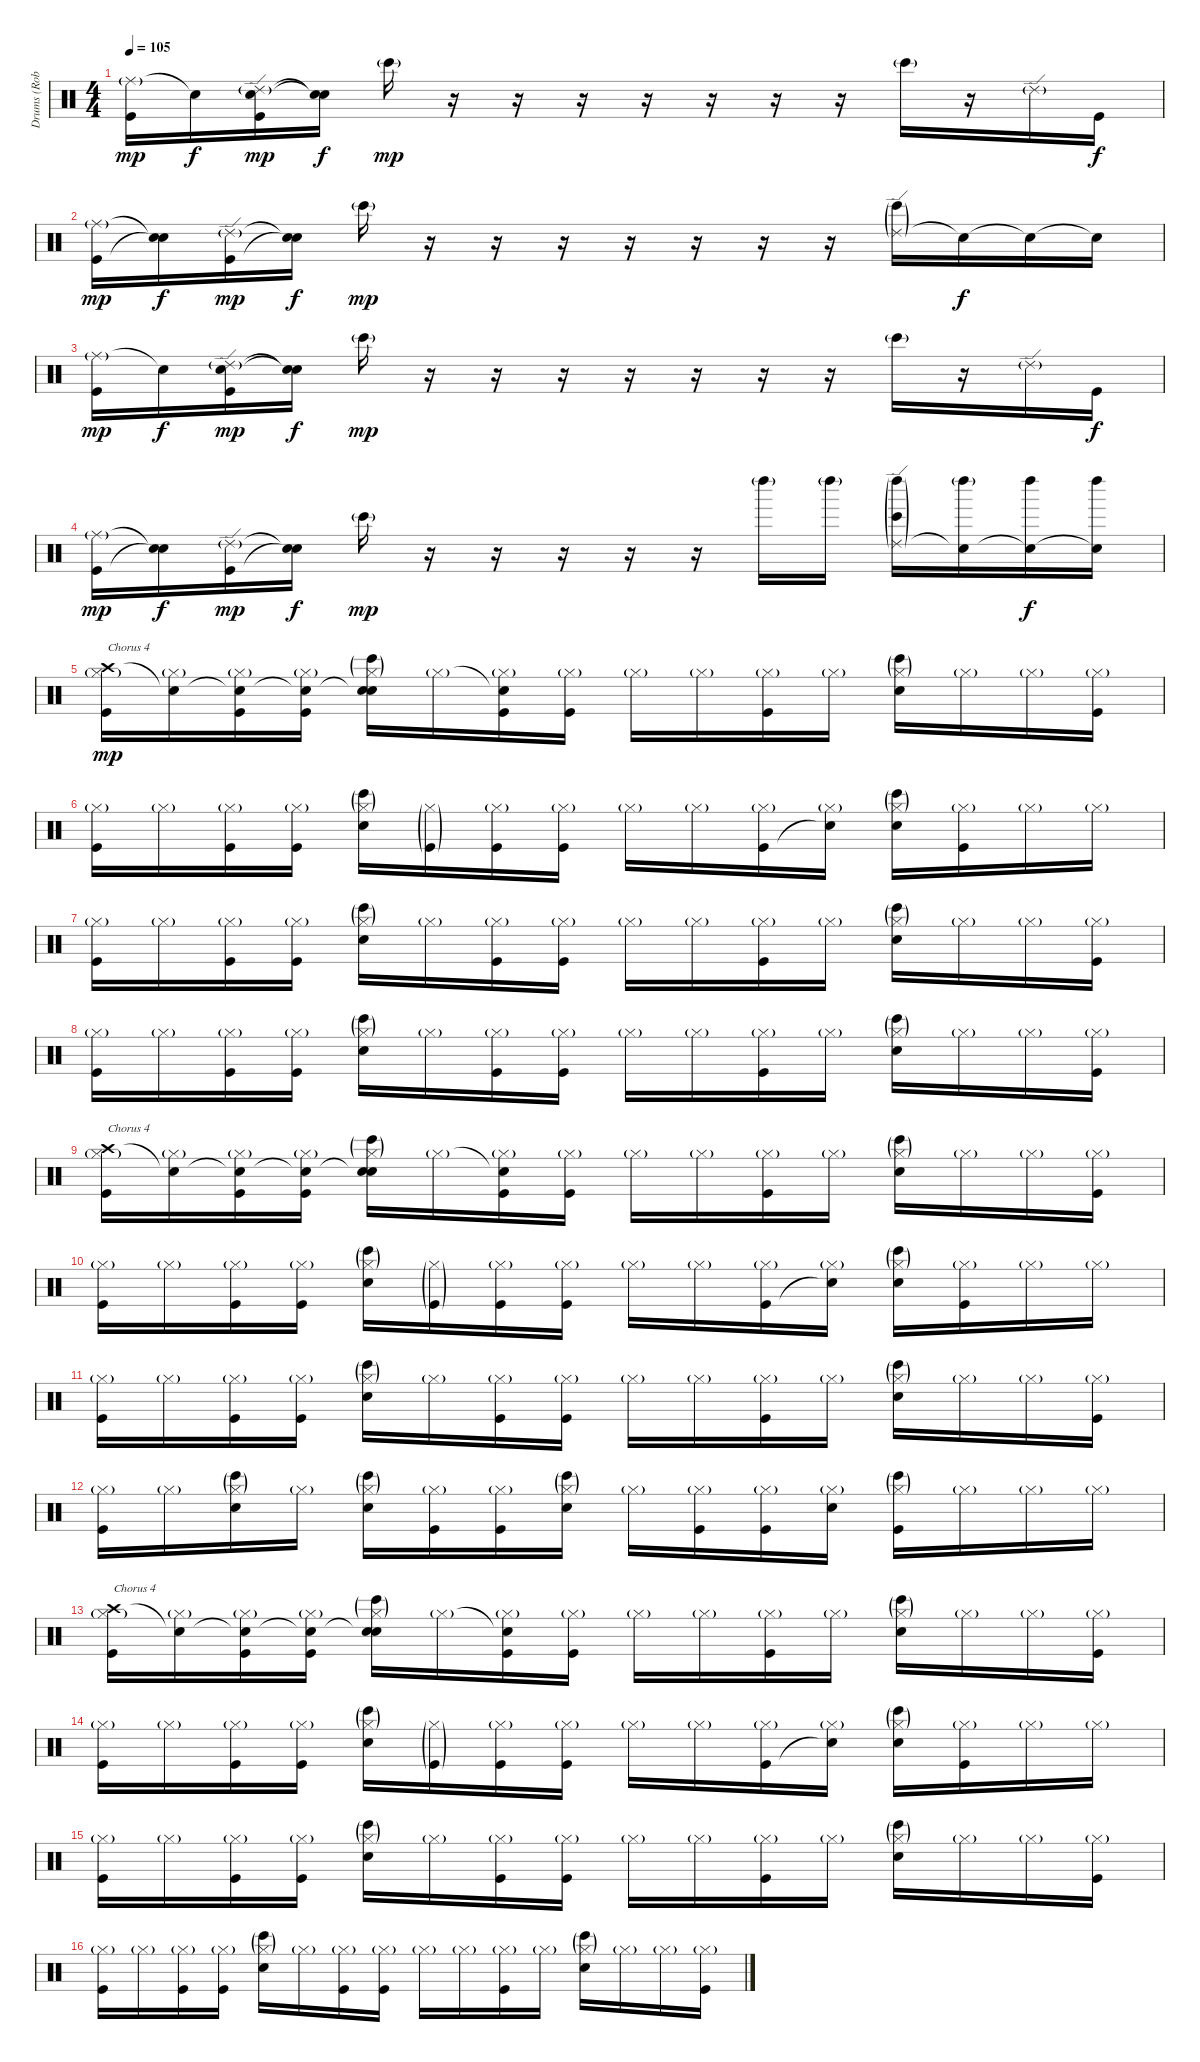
\track ("Drums (Rob Bourdon)" "Drums (Rob") {instrument percussion}
\staff {score}
\articulation defaults
\ts (4 4)
\tempo 105
\clef neutral
\ks c
("Ride (middle)"{g} "Kick (hit)").16{dy mp} "Snare (hit)"{t}.16{dy f} ("Ride (edge) 2"{g} "Snare (hit)" "Kick (hit)").16{dy mp} ("Snare (hit)"{t} "Snare (hit)"{t}).16{dy f} "Bongo High (hit)"{g}.16{dy mp} r.16 r.16 r.16 r.16 r.16 r.16 r.16 "Bongo High (hit)"{g}.16 r.16 "Ride (edge) 2"{g}.16 "Kick (hit)".16{dy f} |
("Ride (middle)"{g} "Kick (hit)").16{dy mp} ("Snare (hit)"{t} "Snare (hit)"{t}).16{dy f} ("Ride (edge) 2"{g} "Kick (hit)").16{dy mp} ("Snare (hit)"{t} "Snare (hit)"{t}).16{dy f} "Bongo High (hit)"{g}.16{dy mp} r.16 r.16 r.16 r.16 r.16 r.16 r.16 ("Ride (edge) 2"{g} "Bongo High (hit)"{g}).16 "Snare (hit)"{t}.16{dy f} "Snare (hit)"{t}.16 "Snare (hit)"{t}.16 |
("Ride (middle)"{g} "Kick (hit)").16{dy mp} "Snare (hit)"{t}.16{dy f} ("Ride (edge) 2"{g} "Snare (hit)" "Kick (hit)").16{dy mp} ("Snare (hit)"{t} "Snare (hit)"{t}).16{dy f} "Bongo High (hit)"{g}.16{dy mp} r.16 r.16 r.16 r.16 r.16 r.16 r.16 "Bongo High (hit)"{g}.16 r.16 "Ride (edge) 2"{g}.16 "Kick (hit)".16{dy f} |
("Ride (middle)"{g} "Kick (hit)").16{dy mp} ("Snare (hit)"{t} "Snare (hit)"{t}).16{dy f} ("Ride (edge) 2"{g} "Kick (hit)").16{dy mp} ("Snare (hit)"{t} "Snare (hit)"{t}).16{dy f} "Bongo High (hit)"{g}.16{dy mp} r.16 r.16 r.16 r.16 r.16 "Left Maraca (hit)"{g}.16 "Left Maraca (hit)"{g}.16 ("Left Maraca (hit)"{g} "Ride (edge) 2"{g} "Bongo High (hit)"{g}).16 ("Left Maraca (hit)"{g} "Snare (hit)"{t}).16 ("Left Maraca (hit)" "Snare (hit)"{t}).16{dy f} ("Left Maraca (hit)" "Snare (hit)"{t}).16 |
("Crash high (hit)" "Hi-Hat (closed)"{g} "Kick (hit)").16{txt "Chorus 4" dy mp} ("Snare (hit)"{t} "Hi-Hat (closed)"{g}).16 ("Snare (hit)"{t} "Hi-Hat (closed)"{g} "Kick (hit)").16 ("Snare (hit)"{t} "Hi-Hat (closed)"{g} "Kick (hit)").16 ("Snare (hit)"{t} "Hi-Hat (closed)"{g} "Bongo High (hit)"{g} "Electric Snare (hit)").16 "Hi-Hat (closed)"{g}.16 ("Snare (hit)"{t} "Hi-Hat (closed)"{g} "Kick (hit)").16 ("Hi-Hat (closed)"{g} "Kick (hit)").16 "Hi-Hat (closed)"{g}.16 "Hi-Hat (closed)"{g}.16 ("Hi-Hat (closed)"{g} "Kick (hit)").16 "Hi-Hat (closed)"{g}.16 ("Hi-Hat (closed)"{g} "Bongo High (hit)"{g} "Electric Snare (hit)").16 "Hi-Hat (closed)"{g}.16 "Hi-Hat (closed)"{g}.16 ("Hi-Hat (closed)"{g} "Kick (hit)").16 |
("Hi-Hat (closed)"{g} "Kick (hit)").16 "Hi-Hat (closed)"{g}.16 ("Hi-Hat (closed)"{g} "Kick (hit)").16 ("Hi-Hat (closed)"{g} "Kick (hit)").16 ("Hi-Hat (closed)"{g} "Bongo High (hit)"{g} "Electric Snare (hit)").16 ("Hi-Hat (closed)"{g} "Kick (hit)"{g}).16 ("Hi-Hat (closed)"{g} "Kick (hit)").16 ("Hi-Hat (closed)"{g} "Kick (hit)").16 "Hi-Hat (closed)"{g}.16 "Hi-Hat (closed)"{g}.16 ("Hi-Hat (closed)"{g} "Kick (hit)").16 ("Hi-Hat (closed)"{g} "Snare (hit)"{t}).16 ("Hi-Hat (closed)"{g} "Bongo High (hit)"{g} "Electric Snare (hit)").16 ("Hi-Hat (closed)"{g} "Kick (hit)").16 "Hi-Hat (closed)"{g}.16 "Hi-Hat (closed)"{g}.16 |
("Hi-Hat (closed)"{g} "Kick (hit)").16 "Hi-Hat (closed)"{g}.16 ("Hi-Hat (closed)"{g} "Kick (hit)").16 ("Hi-Hat (closed)"{g} "Kick (hit)").16 ("Hi-Hat (closed)"{g} "Bongo High (hit)"{g} "Electric Snare (hit)").16 "Hi-Hat (closed)"{g}.16 ("Hi-Hat (closed)"{g} "Kick (hit)").16 ("Hi-Hat (closed)"{g} "Kick (hit)").16 "Hi-Hat (closed)"{g}.16 "Hi-Hat (closed)"{g}.16 ("Hi-Hat (closed)"{g} "Kick (hit)").16 "Hi-Hat (closed)"{g}.16 ("Hi-Hat (closed)"{g} "Bongo High (hit)"{g} "Electric Snare (hit)").16 "Hi-Hat (closed)"{g}.16 "Hi-Hat (closed)"{g}.16 ("Hi-Hat (closed)"{g} "Kick (hit)").16 |
("Hi-Hat (closed)"{g} "Kick (hit)").16 "Hi-Hat (closed)"{g}.16 ("Hi-Hat (closed)"{g} "Kick (hit)").16 ("Hi-Hat (closed)"{g} "Kick (hit)").16 ("Hi-Hat (closed)"{g} "Bongo High (hit)"{g} "Electric Snare (hit)").16 "Hi-Hat (closed)"{g}.16 ("Hi-Hat (closed)"{g} "Kick (hit)").16 ("Hi-Hat (closed)"{g} "Kick (hit)").16 "Hi-Hat (closed)"{g}.16 "Hi-Hat (closed)"{g}.16 ("Hi-Hat (closed)"{g} "Kick (hit)").16 "Hi-Hat (closed)"{g}.16 ("Hi-Hat (closed)"{g} "Bongo High (hit)"{g} "Electric Snare (hit)").16 "Hi-Hat (closed)"{g}.16 "Hi-Hat (closed)"{g}.16 ("Hi-Hat (closed)"{g} "Kick (hit)").16 |
("Crash high (hit)" "Hi-Hat (closed)"{g} "Kick (hit)").16{txt "Chorus 4"} ("Snare (hit)"{t} "Hi-Hat (closed)"{g}).16 ("Snare (hit)"{t} "Hi-Hat (closed)"{g} "Kick (hit)").16 ("Snare (hit)"{t} "Hi-Hat (closed)"{g} "Kick (hit)").16 ("Snare (hit)"{t} "Hi-Hat (closed)"{g} "Bongo High (hit)"{g} "Electric Snare (hit)").16 "Hi-Hat (closed)"{g}.16 ("Snare (hit)"{t} "Hi-Hat (closed)"{g} "Kick (hit)").16 ("Hi-Hat (closed)"{g} "Kick (hit)").16 "Hi-Hat (closed)"{g}.16 "Hi-Hat (closed)"{g}.16 ("Hi-Hat (closed)"{g} "Kick (hit)").16 "Hi-Hat (closed)"{g}.16 ("Hi-Hat (closed)"{g} "Bongo High (hit)"{g} "Electric Snare (hit)").16 "Hi-Hat (closed)"{g}.16 "Hi-Hat (closed)"{g}.16 ("Hi-Hat (closed)"{g} "Kick (hit)").16 |
("Hi-Hat (closed)"{g} "Kick (hit)").16 "Hi-Hat (closed)"{g}.16 ("Hi-Hat (closed)"{g} "Kick (hit)").16 ("Hi-Hat (closed)"{g} "Kick (hit)").16 ("Hi-Hat (closed)"{g} "Bongo High (hit)"{g} "Electric Snare (hit)").16 ("Hi-Hat (closed)"{g} "Kick (hit)"{g}).16 ("Hi-Hat (closed)"{g} "Kick (hit)").16 ("Hi-Hat (closed)"{g} "Kick (hit)").16 "Hi-Hat (closed)"{g}.16 "Hi-Hat (closed)"{g}.16 ("Hi-Hat (closed)"{g} "Kick (hit)").16 ("Hi-Hat (closed)"{g} "Snare (hit)"{t}).16 ("Hi-Hat (closed)"{g} "Bongo High (hit)"{g} "Electric Snare (hit)").16 ("Hi-Hat (closed)"{g} "Kick (hit)").16 "Hi-Hat (closed)"{g}.16 "Hi-Hat (closed)"{g}.16 |
("Hi-Hat (closed)"{g} "Kick (hit)").16 "Hi-Hat (closed)"{g}.16 ("Hi-Hat (closed)"{g} "Kick (hit)").16 ("Hi-Hat (closed)"{g} "Kick (hit)").16 ("Hi-Hat (closed)"{g} "Bongo High (hit)"{g} "Electric Snare (hit)").16 "Hi-Hat (closed)"{g}.16 ("Hi-Hat (closed)"{g} "Kick (hit)").16 ("Hi-Hat (closed)"{g} "Kick (hit)").16 "Hi-Hat (closed)"{g}.16 "Hi-Hat (closed)"{g}.16 ("Hi-Hat (closed)"{g} "Kick (hit)").16 "Hi-Hat (closed)"{g}.16 ("Hi-Hat (closed)"{g} "Bongo High (hit)"{g} "Electric Snare (hit)").16 "Hi-Hat (closed)"{g}.16 "Hi-Hat (closed)"{g}.16 ("Hi-Hat (closed)"{g} "Kick (hit)").16 |
("Hi-Hat (closed)"{g} "Kick (hit)").16 "Hi-Hat (closed)"{g}.16 ("Hi-Hat (closed)"{g} "Bongo High (hit)"{g} "Electric Snare (hit)").16 "Hi-Hat (closed)"{g}.16 ("Hi-Hat (closed)"{g} "Bongo High (hit)"{g} "Electric Snare (hit)").16 ("Hi-Hat (closed)"{g} "Kick (hit)").16 ("Hi-Hat (closed)"{g} "Kick (hit)").16 ("Hi-Hat (closed)"{g} "Bongo High (hit)"{g} "Electric Snare (hit)").16 "Hi-Hat (closed)"{g}.16 ("Hi-Hat (closed)"{g} "Kick (hit)").16 ("Hi-Hat (closed)"{g} "Kick (hit)").16 ("Hi-Hat (closed)"{g} "Electric Snare (hit)").16 ("Hi-Hat (closed)"{g} "Bongo High (hit)"{g} "Kick (hit)").16 "Hi-Hat (closed)"{g}.16 "Hi-Hat (closed)"{g}.16 "Hi-Hat (closed)"{g}.16 |
("Crash high (hit)" "Hi-Hat (closed)"{g} "Kick (hit)").16{txt "Chorus 4"} ("Snare (hit)"{t} "Hi-Hat (closed)"{g}).16 ("Snare (hit)"{t} "Hi-Hat (closed)"{g} "Kick (hit)").16 ("Snare (hit)"{t} "Hi-Hat (closed)"{g} "Kick (hit)").16 ("Snare (hit)"{t} "Hi-Hat (closed)"{g} "Bongo High (hit)"{g} "Electric Snare (hit)").16 "Hi-Hat (closed)"{g}.16 ("Snare (hit)"{t} "Hi-Hat (closed)"{g} "Kick (hit)").16 ("Hi-Hat (closed)"{g} "Kick (hit)").16 "Hi-Hat (closed)"{g}.16 "Hi-Hat (closed)"{g}.16 ("Hi-Hat (closed)"{g} "Kick (hit)").16 "Hi-Hat (closed)"{g}.16 ("Hi-Hat (closed)"{g} "Bongo High (hit)"{g} "Electric Snare (hit)").16 "Hi-Hat (closed)"{g}.16 "Hi-Hat (closed)"{g}.16 ("Hi-Hat (closed)"{g} "Kick (hit)").16 |
("Hi-Hat (closed)"{g} "Kick (hit)").16 "Hi-Hat (closed)"{g}.16 ("Hi-Hat (closed)"{g} "Kick (hit)").16 ("Hi-Hat (closed)"{g} "Kick (hit)").16 ("Hi-Hat (closed)"{g} "Bongo High (hit)"{g} "Electric Snare (hit)").16 ("Hi-Hat (closed)"{g} "Kick (hit)"{g}).16 ("Hi-Hat (closed)"{g} "Kick (hit)").16 ("Hi-Hat (closed)"{g} "Kick (hit)").16 "Hi-Hat (closed)"{g}.16 "Hi-Hat (closed)"{g}.16 ("Hi-Hat (closed)"{g} "Kick (hit)").16 ("Hi-Hat (closed)"{g} "Snare (hit)"{t}).16 ("Hi-Hat (closed)"{g} "Bongo High (hit)"{g} "Electric Snare (hit)").16 ("Hi-Hat (closed)"{g} "Kick (hit)").16 "Hi-Hat (closed)"{g}.16 "Hi-Hat (closed)"{g}.16 |
("Hi-Hat (closed)"{g} "Kick (hit)").16 "Hi-Hat (closed)"{g}.16 ("Hi-Hat (closed)"{g} "Kick (hit)").16 ("Hi-Hat (closed)"{g} "Kick (hit)").16 ("Hi-Hat (closed)"{g} "Bongo High (hit)"{g} "Electric Snare (hit)").16 "Hi-Hat (closed)"{g}.16 ("Hi-Hat (closed)"{g} "Kick (hit)").16 ("Hi-Hat (closed)"{g} "Kick (hit)").16 "Hi-Hat (closed)"{g}.16 "Hi-Hat (closed)"{g}.16 ("Hi-Hat (closed)"{g} "Kick (hit)").16 "Hi-Hat (closed)"{g}.16 ("Hi-Hat (closed)"{g} "Bongo High (hit)"{g} "Electric Snare (hit)").16 "Hi-Hat (closed)"{g}.16 "Hi-Hat (closed)"{g}.16 ("Hi-Hat (closed)"{g} "Kick (hit)").16 |
("Hi-Hat (closed)"{g} "Kick (hit)").16 "Hi-Hat (closed)"{g}.16 ("Hi-Hat (closed)"{g} "Kick (hit)").16 ("Hi-Hat (closed)"{g} "Kick (hit)").16 ("Hi-Hat (closed)"{g} "Bongo High (hit)"{g} "Electric Snare (hit)").16 "Hi-Hat (closed)"{g}.16 ("Hi-Hat (closed)"{g} "Kick (hit)").16 ("Hi-Hat (closed)"{g} "Kick (hit)").16 "Hi-Hat (closed)"{g}.16 "Hi-Hat (closed)"{g}.16 ("Hi-Hat (closed)"{g} "Kick (hit)").16 "Hi-Hat (closed)"{g}.16 ("Hi-Hat (closed)"{g} "Bongo High (hit)"{g} "Electric Snare (hit)").16 "Hi-Hat (closed)"{g}.16 "Hi-Hat (closed)"{g}.16 ("Hi-Hat (closed)"{g} "Kick (hit)").16
